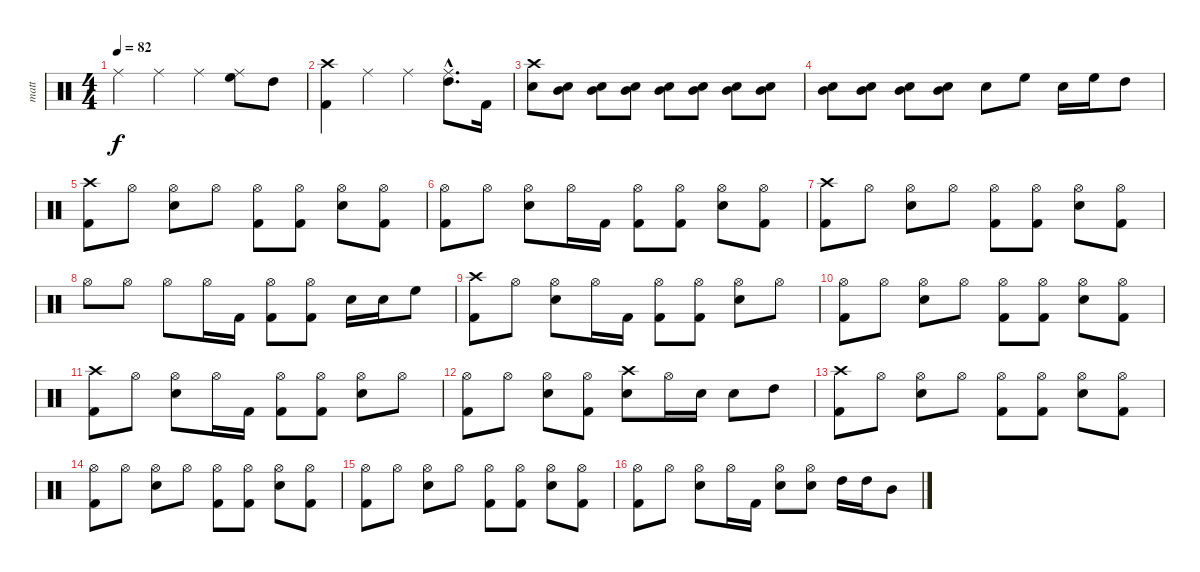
\track ("matt" "matt") {instrument percussion}
\staff {score}
\articulation defaults
\ts (4 4)
\tempo 82
\clef neutral
\ks c "Ride (middle)".4{dy f} "Ride (middle)".4 "Ride (middle)".4
("Ride (middle)" "High Floor Tom (hit)").8 "High Tom (hit)".8 |
("Crash high (hit)" "Kick (hit) 2").4 "Ride (middle)".4 "Ride (middle)".4 ("Ride (middle)"{hac} "High Tom (hit)"{hac}).8{d} "Kick (hit) 2".16 |
("Crash high (hit)" "Electric Snare (hit)").8 ("Electric Snare (hit)" "Mid Tom (hit)").8 ("Electric Snare (hit)" "Mid Tom (hit)").8 ("Electric Snare (hit)" "Mid Tom (hit)").8 ("Electric Snare (hit)" "Mid Tom (hit)").8 ("Electric Snare (hit)" "Mid Tom (hit)").8 ("Electric Snare (hit)" "Mid Tom (hit)").8 ("Electric Snare (hit)" "Mid Tom (hit)").8 |
("Electric Snare (hit)" "Mid Tom (hit)").8 ("Electric Snare (hit)" "Mid Tom (hit)").8 ("Electric Snare (hit)" "Mid Tom (hit)").8 ("Electric Snare (hit)" "Mid Tom (hit)").8 "Electric Snare (hit)".8 "High Floor Tom (hit)".8 "Electric Snare (hit)".16 "High Floor Tom (hit)".16 "High Tom (hit)".8 |
("Crash high (hit)" "Kick (hit) 2").8 "Hi-Hat (open)".8 ("Hi-Hat (open)" "Electric Snare (hit)").8 "Hi-Hat (open)".8 ("Hi-Hat (open)" "Kick (hit) 2").8 ("Hi-Hat (open)" "Kick (hit) 2").8 ("Hi-Hat (open)" "Electric Snare (hit)").8 ("Hi-Hat (open)" "Kick (hit) 2").8 |
("Hi-Hat (open)" "Kick (hit) 2").8 "Hi-Hat (open)".8 ("Hi-Hat (open)" "Electric Snare (hit)").8 "Hi-Hat (open)".16 "Kick (hit) 2".16 ("Hi-Hat (open)" "Kick (hit) 2").8 ("Hi-Hat (open)" "Kick (hit) 2").8 ("Hi-Hat (open)" "Electric Snare (hit)").8 ("Hi-Hat (open)" "Kick (hit) 2").8 |
("Crash high (hit)" "Kick (hit) 2").8 "Hi-Hat (open)".8 ("Hi-Hat (open)" "Electric Snare (hit)").8 "Hi-Hat (open)".8 ("Hi-Hat (open)" "Kick (hit) 2").8 ("Hi-Hat (open)" "Kick (hit) 2").8 ("Hi-Hat (open)" "Electric Snare (hit)").8 ("Hi-Hat (open)" "Kick (hit) 2").8 |
"Hi-Hat (open)".8 "Hi-Hat (open)".8 "Hi-Hat (open)".8 "Hi-Hat (open)".16 "Kick (hit) 2".16 ("Hi-Hat (open)" "Kick (hit) 2").8 ("Hi-Hat (open)" "Kick (hit) 2").8 "Electric Snare (hit)".16 "Electric Snare (hit)".16 "High Floor Tom (hit)".8 |
("Crash high (hit)" "Kick (hit) 2").8 "Hi-Hat (open)".8 ("Hi-Hat (open)" "Electric Snare (hit)").8 "Hi-Hat (open)".16 "Kick (hit) 2".16 ("Hi-Hat (open)" "Kick (hit) 2").8 ("Hi-Hat (open)" "Kick (hit) 2").8 ("Hi-Hat (open)" "Electric Snare (hit)").8 "Hi-Hat (open)".8 |
("Hi-Hat (open)" "Kick (hit) 2").8 "Hi-Hat (open)".8 ("Hi-Hat (open)" "Electric Snare (hit)").8 "Hi-Hat (open)".8 ("Hi-Hat (open)" "Kick (hit) 2").8 ("Hi-Hat (open)" "Kick (hit) 2").8 ("Hi-Hat (open)" "Electric Snare (hit)").8 ("Hi-Hat (open)" "Kick (hit) 2").8 |
("Crash high (hit)" "Kick (hit) 2").8 "Hi-Hat (open)".8 ("Hi-Hat (open)" "Electric Snare (hit)").8 "Hi-Hat (open)".16 "Kick (hit) 2".16 ("Hi-Hat (open)" "Kick (hit) 2").8 ("Hi-Hat (open)" "Kick (hit) 2").8 ("Hi-Hat (open)" "Electric Snare (hit)").8 "Hi-Hat (open)".8 |
("Hi-Hat (open)" "Kick (hit) 2").8 "Hi-Hat (open)".8 ("Hi-Hat (open)" "Electric Snare (hit)").8 ("Hi-Hat (open)" "Kick (hit) 2").8 ("Crash high (hit)" "Electric Snare (hit)").8 "Hi-Hat (open)".16 "Electric Snare (hit)".16 "Electric Snare (hit)".8 "High Tom (hit)".8 |
("Crash high (hit)" "Kick (hit) 2").8 "Hi-Hat (open)".8 ("Hi-Hat (open)" "Electric Snare (hit)").8 "Hi-Hat (open)".8 ("Hi-Hat (open)" "Kick (hit) 2").8 ("Hi-Hat (open)" "Kick (hit) 2").8 ("Hi-Hat (open)" "Electric Snare (hit)").8 ("Hi-Hat (open)" "Kick (hit) 2").8 |
("Hi-Hat (open)" "Kick (hit) 2").8 "Hi-Hat (open)".8 ("Hi-Hat (open)" "Electric Snare (hit)").8 "Hi-Hat (open)".8 ("Hi-Hat (open)" "Kick (hit) 2").8 ("Hi-Hat (open)" "Kick (hit) 2").8 ("Hi-Hat (open)" "Electric Snare (hit)").8 ("Hi-Hat (open)" "Kick (hit) 2").8 |
("Hi-Hat (open)" "Kick (hit) 2").8 "Hi-Hat (open)".8 ("Hi-Hat (open)" "Electric Snare (hit)").8 "Hi-Hat (open)".8 ("Hi-Hat (open)" "Kick (hit) 2").8 ("Hi-Hat (open)" "Kick (hit) 2").8 ("Hi-Hat (open)" "Electric Snare (hit)").8 ("Hi-Hat (open)" "Kick (hit) 2").8 |
("Hi-Hat (open)" "Kick (hit) 2").8 "Hi-Hat (open)".8 ("Hi-Hat (open)" "Electric Snare (hit)").8 "Hi-Hat (open)".16 "Kick (hit) 2".16 ("Hi-Hat (open)" "Electric Snare (hit)").8 ("Hi-Hat (open)" "Electric Snare (hit)").8 "High Tom (hit)".16 "High Tom (hit)".16 "Mid Tom (hit)".8
